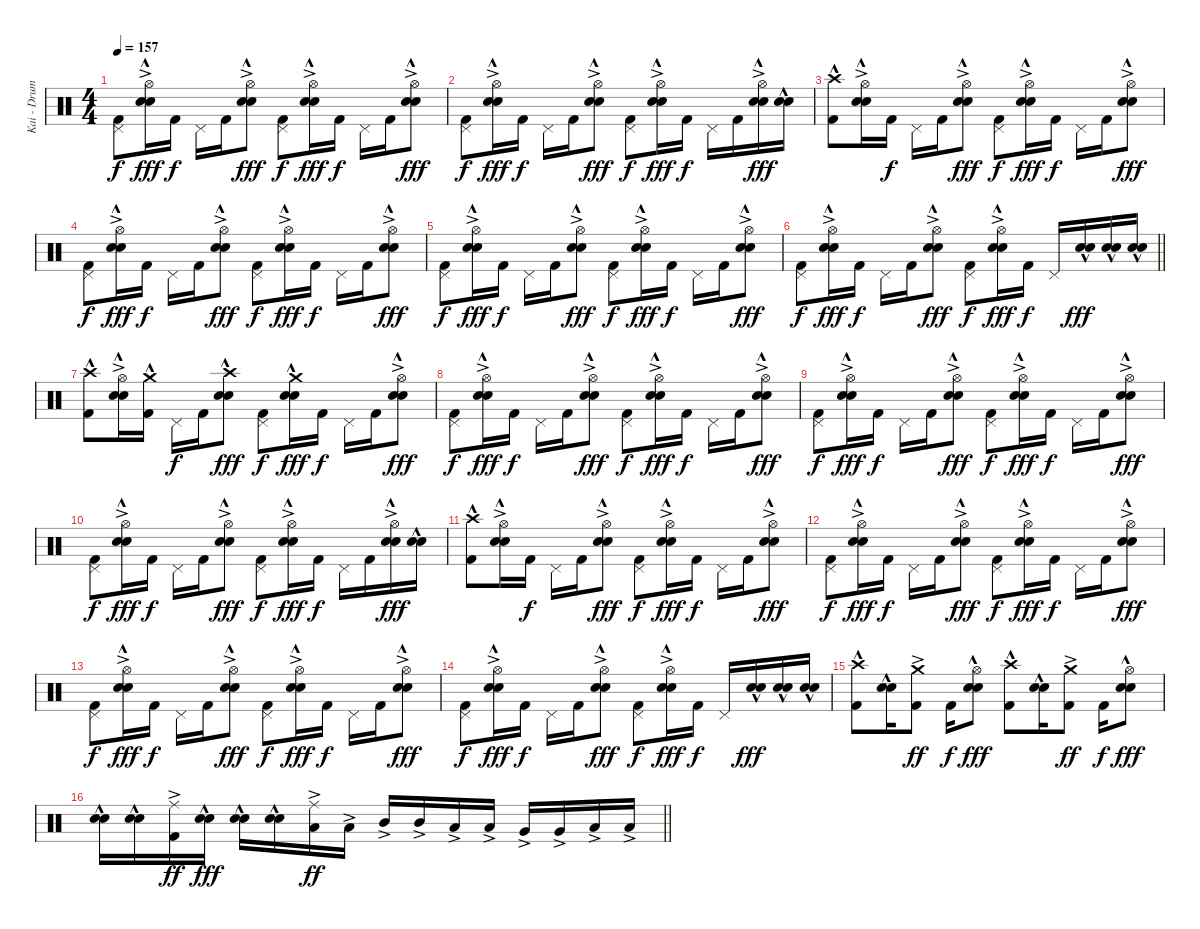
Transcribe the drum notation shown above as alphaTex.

\track ("Kai - Drums" "Kai - Drum") {instrument percussion}
\staff {score}
\articulation defaults
\ts (4 4)
\tempo 157
\clef neutral
\ks c
("Pedal Hi-Hat (hit)" "Kick (hit) 2").8{dy f} ("Hi-Hat (open)"{ac} "Electric Snare (hit)"{hac} "Snare (hit) 2").16{dy fff} "Kick (hit) 2".16{dy f} "Pedal Hi-Hat (hit)".16 "Kick (hit) 2".16 ("Hi-Hat (open)"{ac} "Electric Snare (hit)"{hac} "Snare (hit) 2").8{dy fff} ("Pedal Hi-Hat (hit)" "Kick (hit) 2").8{dy f} ("Hi-Hat (open)"{ac} "Electric Snare (hit)"{hac} "Snare (hit) 2").16{dy fff} "Kick (hit) 2".16{dy f} "Pedal Hi-Hat (hit)".16 "Kick (hit) 2".16 ("Hi-Hat (open)"{ac} "Electric Snare (hit)"{hac} "Snare (hit) 2").8{dy fff} |
("Pedal Hi-Hat (hit)" "Kick (hit) 2").8{dy f} ("Hi-Hat (open)"{ac} "Electric Snare (hit)"{hac} "Snare (hit) 2").16{dy fff} "Kick (hit) 2".16{dy f} "Pedal Hi-Hat (hit)".16 "Kick (hit) 2".16 ("Hi-Hat (open)"{ac} "Electric Snare (hit)"{hac} "Snare (hit) 2").8{dy fff} ("Pedal Hi-Hat (hit)" "Kick (hit) 2").8{dy f} ("Hi-Hat (open)"{ac} "Electric Snare (hit)"{hac} "Snare (hit) 2").16{dy fff} "Kick (hit) 2".16{dy f} "Pedal Hi-Hat (hit)".16 "Kick (hit) 2".16 ("Hi-Hat (open)"{ac} "Electric Snare (hit)"{hac} "Snare (hit) 2").16{dy fff} ("Electric Snare (hit)"{hac} "Snare (hit) 2").16 |
("Crash high (hit)"{hac} "Kick (hit) 2").8 ("Hi-Hat (open)"{ac} "Electric Snare (hit)"{hac} "Snare (hit) 2").16 "Kick (hit) 2".16{dy f} "Pedal Hi-Hat (hit)".16 "Kick (hit) 2".16 ("Hi-Hat (open)"{ac} "Electric Snare (hit)"{hac} "Snare (hit) 2").8{dy fff} ("Pedal Hi-Hat (hit)" "Kick (hit) 2").8{dy f} ("Hi-Hat (open)"{ac} "Electric Snare (hit)"{hac} "Snare (hit) 2").16{dy fff} "Kick (hit) 2".16{dy f} "Pedal Hi-Hat (hit)".16 "Kick (hit) 2".16 ("Hi-Hat (open)"{ac} "Electric Snare (hit)"{hac} "Snare (hit) 2").8{dy fff} |
("Pedal Hi-Hat (hit)" "Kick (hit) 2").8{dy f} ("Hi-Hat (open)"{ac} "Electric Snare (hit)"{hac} "Snare (hit) 2").16{dy fff} "Kick (hit) 2".16{dy f} "Pedal Hi-Hat (hit)".16 "Kick (hit) 2".16 ("Hi-Hat (open)"{ac} "Electric Snare (hit)"{hac} "Snare (hit) 2").8{dy fff} ("Pedal Hi-Hat (hit)" "Kick (hit) 2").8{dy f} ("Hi-Hat (open)"{ac} "Electric Snare (hit)"{hac} "Snare (hit) 2").16{dy fff} "Kick (hit) 2".16{dy f} "Pedal Hi-Hat (hit)".16 "Kick (hit) 2".16 ("Hi-Hat (open)"{ac} "Electric Snare (hit)"{hac} "Snare (hit) 2").8{dy fff} |
("Pedal Hi-Hat (hit)" "Kick (hit) 2").8{dy f} ("Hi-Hat (open)"{ac} "Electric Snare (hit)"{hac} "Snare (hit) 2").16{dy fff} "Kick (hit) 2".16{dy f} "Pedal Hi-Hat (hit)".16 "Kick (hit) 2".16 ("Hi-Hat (open)"{ac} "Electric Snare (hit)"{hac} "Snare (hit) 2").8{dy fff} ("Pedal Hi-Hat (hit)" "Kick (hit) 2").8{dy f} ("Hi-Hat (open)"{ac} "Electric Snare (hit)"{hac} "Snare (hit) 2").16{dy fff} "Kick (hit) 2".16{dy f} "Pedal Hi-Hat (hit)".16 "Kick (hit) 2".16 ("Hi-Hat (open)"{ac} "Electric Snare (hit)"{hac} "Snare (hit) 2").8{dy fff} |
\barLineRight lightlight
("Pedal Hi-Hat (hit)" "Kick (hit) 2").8{dy f} ("Hi-Hat (open)"{ac} "Electric Snare (hit)"{hac} "Snare (hit) 2").16{dy fff} "Kick (hit) 2".16{dy f} "Pedal Hi-Hat (hit)".16 "Kick (hit) 2".16 ("Hi-Hat (open)"{ac} "Electric Snare (hit)"{hac} "Snare (hit) 2").8{dy fff} ("Pedal Hi-Hat (hit)" "Kick (hit) 2").8{dy f} ("Hi-Hat (open)"{ac} "Electric Snare (hit)"{hac} "Snare (hit) 2").16{dy fff} "Kick (hit) 2".16{dy f} "Pedal Hi-Hat (hit)".16 ("Electric Snare (hit)"{hac} "Snare (hit) 2").16{dy fff} ("Electric Snare (hit)"{hac} "Snare (hit) 2").16 ("Electric Snare (hit)"{hac} "Snare (hit) 2").16 |
\section ("" "")
("Crash high (hit)"{hac} "Kick (hit) 2").8 ("Hi-Hat (open)"{ac} "Electric Snare (hit)"{hac} "Snare (hit) 2").16 ("Crash medium (hit)"{hac} "Kick (hit) 2").16 "Pedal Hi-Hat (hit)".16{dy f} "Kick (hit) 2".16 ("Crash high (hit)"{hac} "Electric Snare (hit)"{hac} "Snare (hit) 2").8{dy fff} ("Pedal Hi-Hat (hit)" "Kick (hit) 2").8{dy f} ("Crash medium (hit)"{hac} "Electric Snare (hit)"{hac} "Snare (hit) 2").16{dy fff} "Kick (hit) 2".16{dy f} "Pedal Hi-Hat (hit)".16 "Kick (hit) 2".16 ("Hi-Hat (open)"{ac} "Electric Snare (hit)"{hac} "Snare (hit) 2").8{dy fff} |
("Pedal Hi-Hat (hit)" "Kick (hit) 2").8{dy f} ("Hi-Hat (open)"{ac} "Electric Snare (hit)"{hac} "Snare (hit) 2").16{dy fff} "Kick (hit) 2".16{dy f} "Pedal Hi-Hat (hit)".16 "Kick (hit) 2".16 ("Hi-Hat (open)"{ac} "Electric Snare (hit)"{hac} "Snare (hit) 2").8{dy fff} ("Pedal Hi-Hat (hit)" "Kick (hit) 2").8{dy f} ("Hi-Hat (open)"{ac} "Electric Snare (hit)"{hac} "Snare (hit) 2").16{dy fff} "Kick (hit) 2".16{dy f} "Pedal Hi-Hat (hit)".16 "Kick (hit) 2".16 ("Hi-Hat (open)"{ac} "Electric Snare (hit)"{hac} "Snare (hit) 2").8{dy fff} |
("Pedal Hi-Hat (hit)" "Kick (hit) 2").8{dy f} ("Hi-Hat (open)"{ac} "Electric Snare (hit)"{hac} "Snare (hit) 2").16{dy fff} "Kick (hit) 2".16{dy f} "Pedal Hi-Hat (hit)".16 "Kick (hit) 2".16 ("Hi-Hat (open)"{ac} "Electric Snare (hit)"{hac} "Snare (hit) 2").8{dy fff} ("Pedal Hi-Hat (hit)" "Kick (hit) 2").8{dy f} ("Hi-Hat (open)"{ac} "Electric Snare (hit)"{hac} "Snare (hit) 2").16{dy fff} "Kick (hit) 2".16{dy f} "Pedal Hi-Hat (hit)".16 "Kick (hit) 2".16 ("Hi-Hat (open)"{ac} "Electric Snare (hit)"{hac} "Snare (hit) 2").8{dy fff} |
("Pedal Hi-Hat (hit)" "Kick (hit) 2").8{dy f} ("Hi-Hat (open)"{ac} "Electric Snare (hit)"{hac} "Snare (hit) 2").16{dy fff} "Kick (hit) 2".16{dy f} "Pedal Hi-Hat (hit)".16 "Kick (hit) 2".16 ("Hi-Hat (open)"{ac} "Electric Snare (hit)"{hac} "Snare (hit) 2").8{dy fff} ("Pedal Hi-Hat (hit)" "Kick (hit) 2").8{dy f} ("Hi-Hat (open)"{ac} "Electric Snare (hit)"{hac} "Snare (hit) 2").16{dy fff} "Kick (hit) 2".16{dy f} "Pedal Hi-Hat (hit)".16 "Kick (hit) 2".16 ("Hi-Hat (open)"{ac} "Electric Snare (hit)"{hac} "Snare (hit) 2").16{dy fff} ("Electric Snare (hit)"{hac} "Snare (hit) 2").16 |
("Crash high (hit)"{hac} "Kick (hit) 2").8 ("Hi-Hat (open)"{ac} "Electric Snare (hit)"{hac} "Snare (hit) 2").16 "Kick (hit) 2".16{dy f} "Pedal Hi-Hat (hit)".16 "Kick (hit) 2".16 ("Hi-Hat (open)"{ac} "Electric Snare (hit)"{hac} "Snare (hit) 2").8{dy fff} ("Pedal Hi-Hat (hit)" "Kick (hit) 2").8{dy f} ("Hi-Hat (open)"{ac} "Electric Snare (hit)"{hac} "Snare (hit) 2").16{dy fff} "Kick (hit) 2".16{dy f} "Pedal Hi-Hat (hit)".16 "Kick (hit) 2".16 ("Hi-Hat (open)"{ac} "Electric Snare (hit)"{hac} "Snare (hit) 2").8{dy fff} |
("Pedal Hi-Hat (hit)" "Kick (hit) 2").8{dy f} ("Hi-Hat (open)"{ac} "Electric Snare (hit)"{hac} "Snare (hit) 2").16{dy fff} "Kick (hit) 2".16{dy f} "Pedal Hi-Hat (hit)".16 "Kick (hit) 2".16 ("Hi-Hat (open)"{ac} "Electric Snare (hit)"{hac} "Snare (hit) 2").8{dy fff} ("Pedal Hi-Hat (hit)" "Kick (hit) 2").8{dy f} ("Hi-Hat (open)"{ac} "Electric Snare (hit)"{hac} "Snare (hit) 2").16{dy fff} "Kick (hit) 2".16{dy f} "Pedal Hi-Hat (hit)".16 "Kick (hit) 2".16 ("Hi-Hat (open)"{ac} "Electric Snare (hit)"{hac} "Snare (hit) 2").8{dy fff} |
("Pedal Hi-Hat (hit)" "Kick (hit) 2").8{dy f} ("Hi-Hat (open)"{ac} "Electric Snare (hit)"{hac} "Snare (hit) 2").16{dy fff} "Kick (hit) 2".16{dy f} "Pedal Hi-Hat (hit)".16 "Kick (hit) 2".16 ("Hi-Hat (open)"{ac} "Electric Snare (hit)"{hac} "Snare (hit) 2").8{dy fff} ("Pedal Hi-Hat (hit)" "Kick (hit) 2").8{dy f} ("Hi-Hat (open)"{ac} "Electric Snare (hit)"{hac} "Snare (hit) 2").16{dy fff} "Kick (hit) 2".16{dy f} "Pedal Hi-Hat (hit)".16 "Kick (hit) 2".16 ("Hi-Hat (open)"{ac} "Electric Snare (hit)"{hac} "Snare (hit) 2").8{dy fff} |
("Pedal Hi-Hat (hit)" "Kick (hit) 2").8{dy f} ("Hi-Hat (open)"{ac} "Electric Snare (hit)"{hac} "Snare (hit) 2").16{dy fff} "Kick (hit) 2".16{dy f} "Pedal Hi-Hat (hit)".16 "Kick (hit) 2".16 ("Hi-Hat (open)"{ac} "Electric Snare (hit)"{hac} "Snare (hit) 2").8{dy fff} ("Pedal Hi-Hat (hit)" "Kick (hit) 2").8{dy f} ("Hi-Hat (open)"{ac} "Electric Snare (hit)"{hac} "Snare (hit) 2").16{dy fff} "Kick (hit) 2".16{dy f} "Pedal Hi-Hat (hit)".16 ("Electric Snare (hit)"{hac} "Snare (hit) 2").16{dy fff} ("Electric Snare (hit)"{hac} "Snare (hit) 2").16 ("Electric Snare (hit)"{hac} "Snare (hit) 2").16 |
("Crash high (hit)"{hac} "Kick (hit) 2").8 ("Electric Snare (hit)"{hac} "Snare (hit) 2").16 ("Crash medium (hit)"{ac} "Kick (hit) 2").8{dy ff} "Kick (hit) 2".16{dy f} ("Hi-Hat (open)" "Electric Snare (hit)"{hac} "Snare (hit) 2").8{dy fff} ("Crash high (hit)"{hac} "Kick (hit) 2").8 ("Electric Snare (hit)"{hac} "Snare (hit) 2").16 ("Crash medium (hit)"{ac} "Kick (hit) 2").8{dy ff} "Kick (hit) 2".16{dy f} ("Hi-Hat (open)" "Electric Snare (hit)"{hac} "Snare (hit) 2").8{dy fff} |
\barLineRight lightlight
("Electric Snare (hit)"{hac} "Snare (hit) 2").16 ("Electric Snare (hit)"{hac} "Snare (hit) 2").16 ("Ride (middle)"{ac} "Kick (hit) 2").16{dy ff} ("Electric Snare (hit)"{hac} "Snare (hit) 2").16{dy fff} ("Electric Snare (hit)"{hac} "Snare (hit) 2").16 ("Electric Snare (hit)"{hac} "Snare (hit) 2").16 ("Ride (middle)"{ac} "Low Tom (hit)"{ac}).16{dy ff} "Low Tom (hit)"{ac}.16 "Mid Tom (hit)"{ac}.16 "Mid Tom (hit)"{ac}.16 "Low Tom (hit)"{ac}.16 "Low Tom (hit)"{ac}.16 "Very Low Tom (hit)"{ac}.16 "Very Low Tom (hit)"{ac}.16 "Low Floor Tom (hit)"{ac}.16 "Low Floor Tom (hit)"{ac}.16
